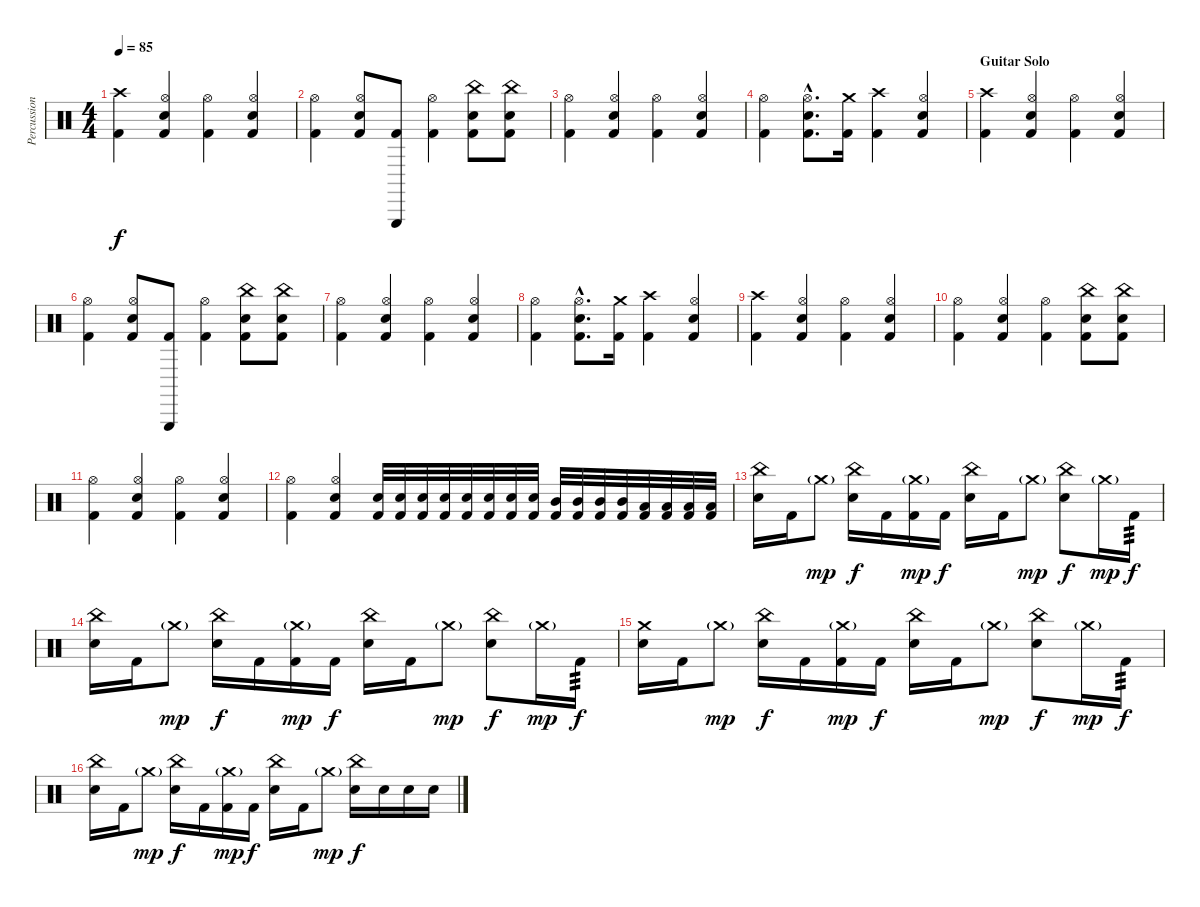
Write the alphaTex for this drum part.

\track ("Percussions" "Percussion") {instrument percussion}
\staff {score}
\articulation defaults
\ts (4 4)
\tempo 85
\clef neutral
\ks c
("Crash high (hit)" "Kick (hit) 2").4{dy f} ("Hi-Hat (open)" "Snare (hit) 2" "Kick (hit) 2").4 ("Hi-Hat (open)" "Kick (hit) 2").4 ("Hi-Hat (open)" "Snare (hit) 2" "Kick (hit) 2").4 |
("Hi-Hat (open)" "Kick (hit) 2").4 ("Hi-Hat (open)" "Snare (hit) 2" "Kick (hit) 2").8 ("Triangle (hit)" "Kick (hit) 2").8 ("Hi-Hat (open)" "Kick (hit) 2").4 ("China (hit)" "Snare (hit) 2" "Kick (hit) 2").8 ("China (hit)" "Snare (hit) 2" "Kick (hit) 2").8 |
("Hi-Hat (open)" "Kick (hit) 2").4 ("Hi-Hat (open)" "Snare (hit) 2" "Kick (hit) 2").4 ("Hi-Hat (open)" "Kick (hit) 2").4 ("Hi-Hat (open)" "Snare (hit) 2" "Kick (hit) 2").4 |
("Hi-Hat (open)" "Kick (hit) 2").4 ("Hi-Hat (open)"{hac} "Snare (hit) 2"{hac} "Kick (hit) 2"{hac}).8{d} ("Crash medium (hit)" "Kick (hit) 2").16 ("Crash high (hit)" "Kick (hit) 2").4 ("Hi-Hat (open)" "Snare (hit) 2" "Kick (hit) 2").4 |
\section ("" "Guitar Solo")
("Crash high (hit)" "Kick (hit) 2").4 ("Hi-Hat (open)" "Snare (hit) 2" "Kick (hit) 2").4 ("Hi-Hat (open)" "Kick (hit) 2").4 ("Hi-Hat (open)" "Snare (hit) 2" "Kick (hit) 2").4 |
("Hi-Hat (open)" "Kick (hit) 2").4 ("Hi-Hat (open)" "Snare (hit) 2" "Kick (hit) 2").8 ("Triangle (hit)" "Kick (hit) 2").8 ("Hi-Hat (open)" "Kick (hit) 2").4 ("China (hit)" "Snare (hit) 2" "Kick (hit) 2").8 ("China (hit)" "Snare (hit) 2" "Kick (hit) 2").8 |
("Hi-Hat (open)" "Kick (hit) 2").4 ("Hi-Hat (open)" "Snare (hit) 2" "Kick (hit) 2").4 ("Hi-Hat (open)" "Kick (hit) 2").4 ("Hi-Hat (open)" "Snare (hit) 2" "Kick (hit) 2").4 |
("Hi-Hat (open)" "Kick (hit) 2").4 ("Hi-Hat (open)"{hac} "Snare (hit) 2"{hac} "Kick (hit) 2"{hac}).8{d} ("Crash medium (hit)" "Kick (hit) 2").16 ("Crash high (hit)" "Kick (hit) 2").4 ("Hi-Hat (open)" "Snare (hit) 2" "Kick (hit) 2").4 |
("Crash high (hit)" "Kick (hit) 2").4 ("Hi-Hat (open)" "Snare (hit) 2" "Kick (hit) 2").4 ("Hi-Hat (open)" "Kick (hit) 2").4 ("Hi-Hat (open)" "Snare (hit) 2" "Kick (hit) 2").4 |
("Hi-Hat (open)" "Kick (hit) 2").4 ("Hi-Hat (open)" "Snare (hit) 2" "Kick (hit) 2").4 ("Hi-Hat (open)" "Kick (hit) 2").4 ("China (hit)" "Snare (hit) 2" "Kick (hit) 2").8 ("China (hit)" "Snare (hit) 2" "Kick (hit) 2").8 |
("Hi-Hat (open)" "Kick (hit) 2").4 ("Hi-Hat (open)" "Snare (hit) 2" "Kick (hit) 2").4 ("Hi-Hat (open)" "Kick (hit) 2").4 ("Hi-Hat (open)" "Snare (hit) 2" "Kick (hit) 2").4 |
("Hi-Hat (open)" "Kick (hit) 2").4 ("Hi-Hat (open)" "Snare (hit) 2" "Kick (hit) 2").4 ("Snare (hit) 2" "Kick (hit) 2").32 ("Snare (hit) 2" "Kick (hit) 2").32 ("Snare (hit) 2" "Kick (hit) 2").32 ("Snare (hit) 2" "Kick (hit) 2").32 ("Snare (hit) 2" "Kick (hit) 2").32 ("Snare (hit) 2" "Kick (hit) 2").32 ("Snare (hit) 2" "Kick (hit) 2").32 ("Snare (hit) 2" "Kick (hit) 2").32 ("Mid Tom (hit)" "Kick (hit) 2").32 ("Mid Tom (hit)" "Kick (hit) 2").32 ("Mid Tom (hit)" "Kick (hit) 2").32 ("Mid Tom (hit)" "Kick (hit) 2").32 ("Low Tom (hit)" "Kick (hit) 2").32 ("Low Tom (hit)" "Kick (hit) 2").32 ("Low Tom (hit)" "Kick (hit) 2").32 ("Low Tom (hit)" "Kick (hit) 2").32 |
("China (hit)" "Snare (hit) 2").16 "Kick (hit) 2".16 "Crash medium (hit)"{g}.8{dy mp} ("China (hit)" "Snare (hit) 2").16{dy f} "Kick (hit) 2".16 ("Crash medium (hit)"{g} "Kick (hit) 2").16{dy mp} "Kick (hit) 2".16{dy f} ("China (hit)" "Snare (hit) 2").16 "Kick (hit) 2".16 "Crash medium (hit)"{g}.8{dy mp} ("China (hit)" "Snare (hit) 2").8{dy f} "Crash medium (hit)"{g}.16{dy mp} "Kick (hit) 2".16{tp 3 dy f} |
("China (hit)" "Snare (hit) 2").16 "Kick (hit) 2".16 "Crash medium (hit)"{g}.8{dy mp} ("China (hit)" "Snare (hit) 2").16{dy f} "Kick (hit) 2".16 ("Crash medium (hit)"{g} "Kick (hit) 2").16{dy mp} "Kick (hit) 2".16{dy f} ("China (hit)" "Snare (hit) 2").16 "Kick (hit) 2".16 "Crash medium (hit)"{g}.8{dy mp} ("China (hit)" "Snare (hit) 2").8{dy f} "Crash medium (hit)"{g}.16{dy mp} "Kick (hit) 2".16{tp 3 dy f} |
("Crash medium (hit)" "Snare (hit) 2").16 "Kick (hit) 2".16 "Crash medium (hit)"{g}.8{dy mp} ("China (hit)" "Snare (hit) 2").16{dy f} "Kick (hit) 2".16 ("Crash medium (hit)"{g} "Kick (hit) 2").16{dy mp} "Kick (hit) 2".16{dy f} ("China (hit)" "Snare (hit) 2").16 "Kick (hit) 2".16 "Crash medium (hit)"{g}.8{dy mp} ("China (hit)" "Snare (hit) 2").8{dy f} "Crash medium (hit)"{g}.16{dy mp} "Kick (hit) 2".16{tp 3 dy f} |
("China (hit)" "Snare (hit) 2").16 "Kick (hit) 2".16 "Crash medium (hit)"{g}.8{dy mp} ("China (hit)" "Snare (hit) 2").16{dy f} "Kick (hit) 2".16 ("Crash medium (hit)"{g} "Kick (hit) 2").16{dy mp} "Kick (hit) 2".16{dy f} ("China (hit)" "Snare (hit) 2").16 "Kick (hit) 2".16 "Crash medium (hit)"{g}.8{dy mp} ("China (hit)" "Snare (hit) 2").16{dy f} "Snare (hit) 2".16 "Snare (hit) 2".16 "Snare (hit) 2".16
